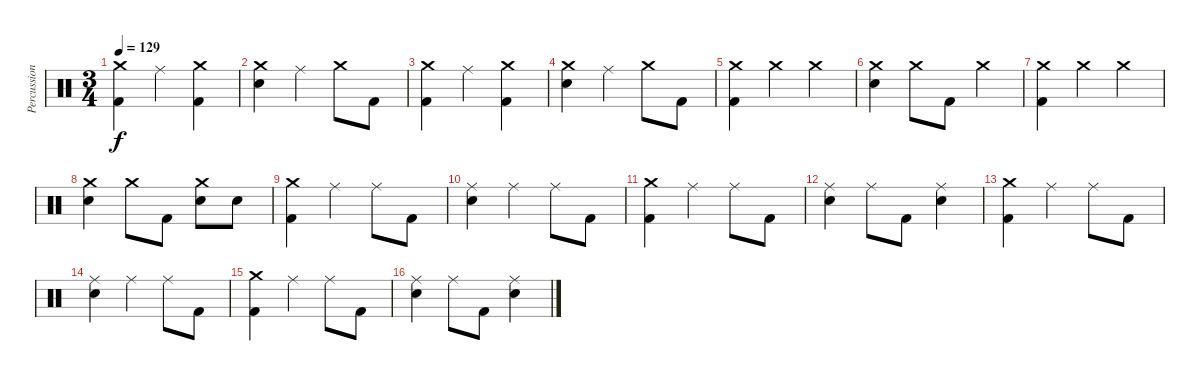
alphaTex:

\track ("Percussion" "Percussion") {instrument percussion}
\staff {score}
\articulation defaults
\ts (3 4)
\tempo 129
\clef neutral
\ks c
("Crash medium (hit)" "Kick (hit) 2").4{dy f} "Ride (middle)".4 ("Crash medium (hit)" "Kick (hit) 2").4 |
("Crash medium (hit)" "Electric Snare (hit)").4 "Ride (middle)".4 "Crash medium (hit)".8 "Kick (hit) 2".8 |
("Crash medium (hit)" "Kick (hit) 2").4 "Ride (middle)".4 ("Crash medium (hit)" "Kick (hit) 2").4 |
("Crash medium (hit)" "Electric Snare (hit)").4 "Ride (middle)".4 "Crash medium (hit)".8 "Kick (hit) 2".8 |
("Crash medium (hit)" "Kick (hit) 2").4 "Crash medium (hit)".4 "Crash medium (hit)".4 |
("Crash medium (hit)" "Electric Snare (hit)").4 "Crash medium (hit)".8 "Kick (hit) 2".8 "Crash medium (hit)".4 |
("Crash medium (hit)" "Kick (hit) 2").4 "Crash medium (hit)".4 "Crash medium (hit)".4 |
("Crash medium (hit)" "Electric Snare (hit)").4 "Crash medium (hit)".8 "Kick (hit) 2".8 ("Crash medium (hit)" "Electric Snare (hit)").8 "Electric Snare (hit)".8 |
("Crash medium (hit)" "Kick (hit) 2").4 "Ride (middle)".4 "Ride (middle)".8 "Kick (hit) 2".8 |
("Ride (middle)" "Electric Snare (hit)").4 "Ride (middle)".4 "Ride (middle)".8 "Kick (hit) 2".8 |
("Crash medium (hit)" "Kick (hit) 2").4 "Ride (middle)".4 "Ride (middle)".8 "Kick (hit) 2".8 |
("Ride (middle)" "Electric Snare (hit)").4 "Ride (middle)".8 "Kick (hit) 2".8 ("Ride (middle)" "Electric Snare (hit)").4 |
("Crash medium (hit)" "Kick (hit) 2").4 "Ride (middle)".4 "Ride (middle)".8 "Kick (hit) 2".8 |
("Ride (middle)" "Electric Snare (hit)").4 "Ride (middle)".4 "Ride (middle)".8 "Kick (hit) 2".8 |
("Crash medium (hit)" "Kick (hit) 2").4 "Ride (middle)".4 "Ride (middle)".8 "Kick (hit) 2".8 |
("Ride (middle)" "Electric Snare (hit)").4 "Ride (middle)".8 "Kick (hit) 2".8 ("Ride (middle)" "Electric Snare (hit)").4
